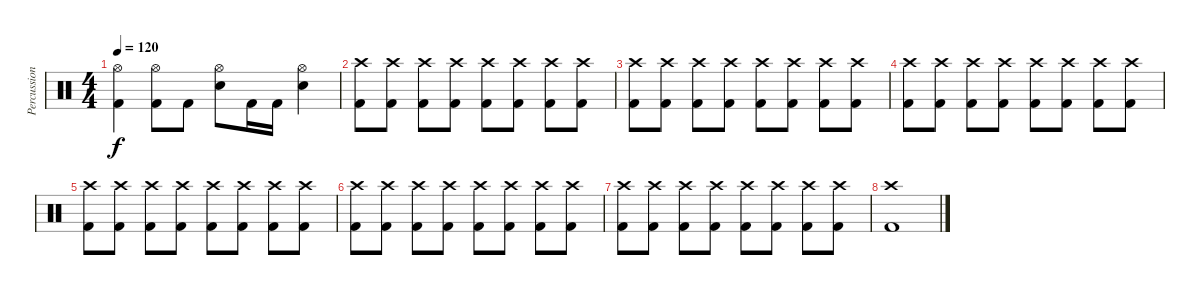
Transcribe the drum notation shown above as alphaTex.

\track ("Percussion" "Percussion") {instrument percussion}
\staff {score}
\articulation defaults
\ts (4 4)
\tempo 120
\clef neutral
\ks c
("Hi-Hat (open)" "Kick (hit) 2").4{dy f} ("Hi-Hat (open)" "Kick (hit) 2").8 "Kick (hit) 2".8 ("Hi-Hat (open)" "Electric Snare (hit)").8 "Kick (hit) 2".16 "Kick (hit) 2".16 ("Hi-Hat (open)" "Electric Snare (hit)").4 |
("Crash high (hit)" "Kick (hit) 2").8 ("Crash high (hit)" "Kick (hit) 2").8 ("Crash high (hit)" "Kick (hit) 2").8 ("Crash high (hit)" "Kick (hit) 2").8 ("Crash high (hit)" "Kick (hit) 2").8 ("Crash high (hit)" "Kick (hit) 2").8 ("Crash high (hit)" "Kick (hit) 2").8 ("Crash high (hit)" "Kick (hit) 2").8 |
("Crash high (hit)" "Kick (hit) 2").8 ("Crash high (hit)" "Kick (hit) 2").8 ("Crash high (hit)" "Kick (hit) 2").8 ("Crash high (hit)" "Kick (hit) 2").8 ("Crash high (hit)" "Kick (hit) 2").8 ("Crash high (hit)" "Kick (hit) 2").8 ("Crash high (hit)" "Kick (hit) 2").8 ("Crash high (hit)" "Kick (hit) 2").8 |
("Crash high (hit)" "Kick (hit) 2").8 ("Crash high (hit)" "Kick (hit) 2").8 ("Crash high (hit)" "Kick (hit) 2").8 ("Crash high (hit)" "Kick (hit) 2").8 ("Crash high (hit)" "Kick (hit) 2").8 ("Crash high (hit)" "Kick (hit) 2").8 ("Crash high (hit)" "Kick (hit) 2").8 ("Crash high (hit)" "Kick (hit) 2").8 |
("Crash high (hit)" "Kick (hit) 2").8 ("Crash high (hit)" "Kick (hit) 2").8 ("Crash high (hit)" "Kick (hit) 2").8 ("Crash high (hit)" "Kick (hit) 2").8 ("Crash high (hit)" "Kick (hit) 2").8 ("Crash high (hit)" "Kick (hit) 2").8 ("Crash high (hit)" "Kick (hit) 2").8 ("Crash high (hit)" "Kick (hit) 2").8 |
("Crash high (hit)" "Kick (hit) 2").8 ("Crash high (hit)" "Kick (hit) 2").8 ("Crash high (hit)" "Kick (hit) 2").8 ("Crash high (hit)" "Kick (hit) 2").8 ("Crash high (hit)" "Kick (hit) 2").8 ("Crash high (hit)" "Kick (hit) 2").8 ("Crash high (hit)" "Kick (hit) 2").8 ("Crash high (hit)" "Kick (hit) 2").8 |
("Crash high (hit)" "Kick (hit) 2").8 ("Crash high (hit)" "Kick (hit) 2").8 ("Crash high (hit)" "Kick (hit) 2").8 ("Crash high (hit)" "Kick (hit) 2").8 ("Crash high (hit)" "Kick (hit) 2").8 ("Crash high (hit)" "Kick (hit) 2").8 ("Crash high (hit)" "Kick (hit) 2").8 ("Crash high (hit)" "Kick (hit) 2").8 |
("Crash high (hit)" "Kick (hit) 2").1
